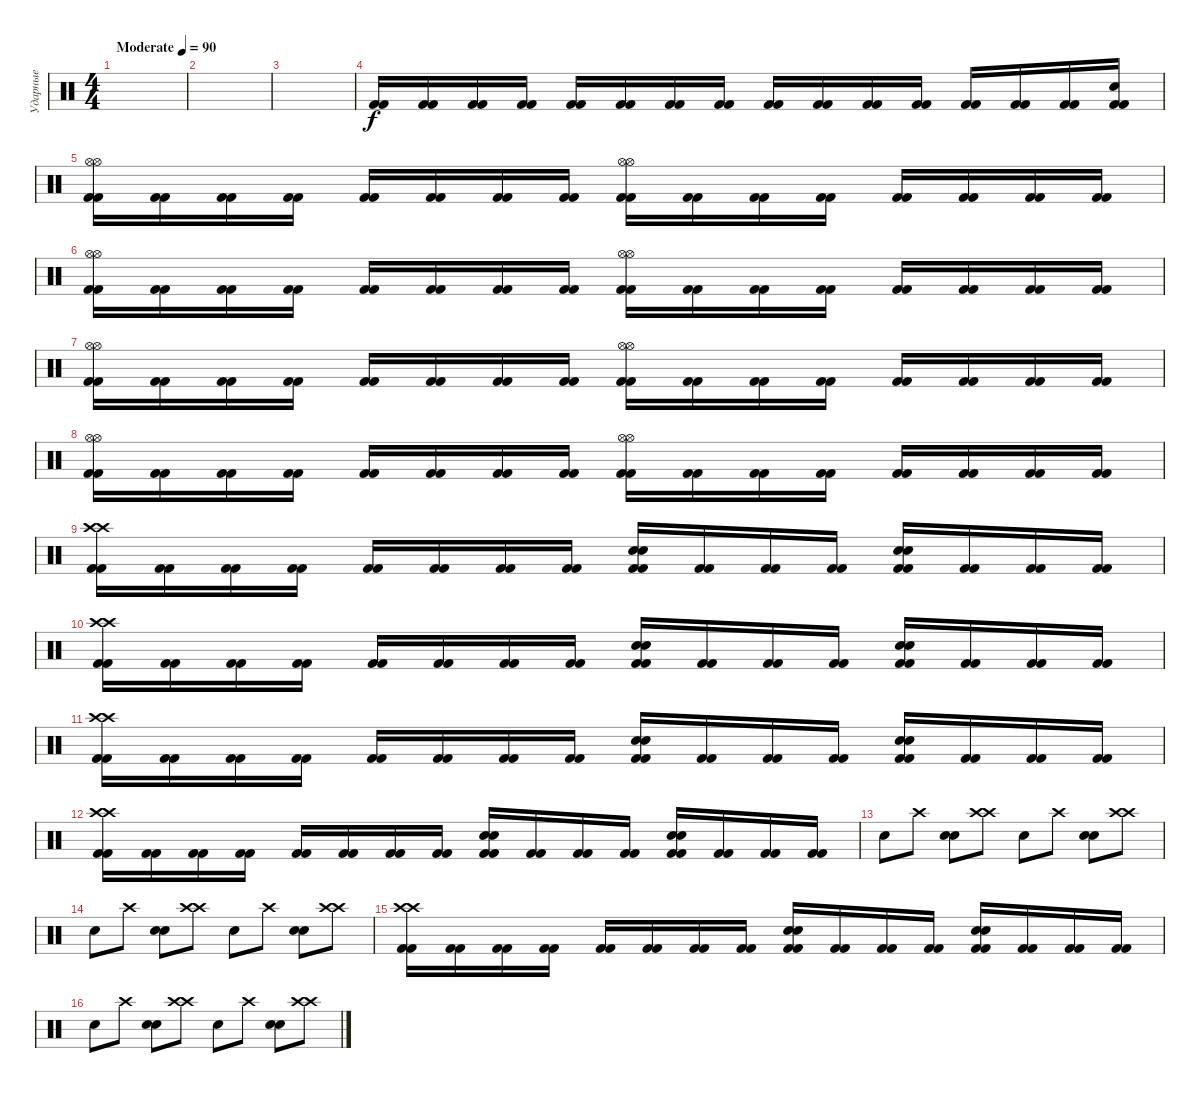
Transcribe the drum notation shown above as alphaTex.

\track ("Ударные" "Ударные") {instrument percussion}
\staff {score}
\articulation defaults
\ts (4 4)
\tempo (90 "Moderate")
\clef neutral
\ks c
|
|
|
("Kick (hit) 2" "Kick (hit) 2").16 ("Kick (hit) 2" "Kick (hit) 2").16 ("Kick (hit) 2" "Kick (hit) 2").16 ("Kick (hit) 2" "Kick (hit) 2").16 ("Kick (hit) 2" "Kick (hit) 2").16 ("Kick (hit) 2" "Kick (hit) 2").16 ("Kick (hit) 2" "Kick (hit) 2").16 ("Kick (hit) 2" "Kick (hit) 2").16 ("Kick (hit) 2" "Kick (hit) 2").16 ("Kick (hit) 2" "Kick (hit) 2").16 ("Kick (hit) 2" "Kick (hit) 2").16 ("Kick (hit) 2" "Kick (hit) 2").16 ("Kick (hit) 2" "Kick (hit) 2").16 ("Kick (hit) 2" "Kick (hit) 2").16 ("Kick (hit) 2" "Kick (hit) 2").16 ("Kick (hit) 2" "Kick (hit) 2" "Electric Snare (hit)").16 |
("Kick (hit) 2" "Kick (hit) 2" "Hi-Hat (open)" "Hi-Hat (open)").16 ("Kick (hit) 2" "Kick (hit) 2").16 ("Kick (hit) 2" "Kick (hit) 2").16 ("Kick (hit) 2" "Kick (hit) 2").16 ("Kick (hit) 2" "Kick (hit) 2").16 ("Kick (hit) 2" "Kick (hit) 2").16 ("Kick (hit) 2" "Kick (hit) 2").16 ("Kick (hit) 2" "Kick (hit) 2").16 ("Kick (hit) 2" "Kick (hit) 2" "Hi-Hat (open)" "Hi-Hat (open)").16 ("Kick (hit) 2" "Kick (hit) 2").16 ("Kick (hit) 2" "Kick (hit) 2").16 ("Kick (hit) 2" "Kick (hit) 2").16 ("Kick (hit) 2" "Kick (hit) 2").16 ("Kick (hit) 2" "Kick (hit) 2").16 ("Kick (hit) 2" "Kick (hit) 2").16 ("Kick (hit) 2" "Kick (hit) 2").16 |
("Kick (hit) 2" "Kick (hit) 2" "Hi-Hat (open)" "Hi-Hat (open)").16 ("Kick (hit) 2" "Kick (hit) 2").16 ("Kick (hit) 2" "Kick (hit) 2").16 ("Kick (hit) 2" "Kick (hit) 2").16 ("Kick (hit) 2" "Kick (hit) 2").16 ("Kick (hit) 2" "Kick (hit) 2").16 ("Kick (hit) 2" "Kick (hit) 2").16 ("Kick (hit) 2" "Kick (hit) 2").16 ("Kick (hit) 2" "Kick (hit) 2" "Hi-Hat (open)" "Hi-Hat (open)").16 ("Kick (hit) 2" "Kick (hit) 2").16 ("Kick (hit) 2" "Kick (hit) 2").16 ("Kick (hit) 2" "Kick (hit) 2").16 ("Kick (hit) 2" "Kick (hit) 2").16 ("Kick (hit) 2" "Kick (hit) 2").16 ("Kick (hit) 2" "Kick (hit) 2").16 ("Kick (hit) 2" "Kick (hit) 2").16 |
("Kick (hit) 2" "Kick (hit) 2" "Hi-Hat (open)" "Hi-Hat (open)").16 ("Kick (hit) 2" "Kick (hit) 2").16 ("Kick (hit) 2" "Kick (hit) 2").16 ("Kick (hit) 2" "Kick (hit) 2").16 ("Kick (hit) 2" "Kick (hit) 2").16 ("Kick (hit) 2" "Kick (hit) 2").16 ("Kick (hit) 2" "Kick (hit) 2").16 ("Kick (hit) 2" "Kick (hit) 2").16 ("Kick (hit) 2" "Kick (hit) 2" "Hi-Hat (open)" "Hi-Hat (open)").16 ("Kick (hit) 2" "Kick (hit) 2").16 ("Kick (hit) 2" "Kick (hit) 2").16 ("Kick (hit) 2" "Kick (hit) 2").16 ("Kick (hit) 2" "Kick (hit) 2").16 ("Kick (hit) 2" "Kick (hit) 2").16 ("Kick (hit) 2" "Kick (hit) 2").16 ("Kick (hit) 2" "Kick (hit) 2").16 |
("Kick (hit) 2" "Kick (hit) 2" "Hi-Hat (open)" "Hi-Hat (open)").16 ("Kick (hit) 2" "Kick (hit) 2").16 ("Kick (hit) 2" "Kick (hit) 2").16 ("Kick (hit) 2" "Kick (hit) 2").16 ("Kick (hit) 2" "Kick (hit) 2").16 ("Kick (hit) 2" "Kick (hit) 2").16 ("Kick (hit) 2" "Kick (hit) 2").16 ("Kick (hit) 2" "Kick (hit) 2").16 ("Kick (hit) 2" "Kick (hit) 2" "Hi-Hat (open)" "Hi-Hat (open)").16 ("Kick (hit) 2" "Kick (hit) 2").16 ("Kick (hit) 2" "Kick (hit) 2").16 ("Kick (hit) 2" "Kick (hit) 2").16 ("Kick (hit) 2" "Kick (hit) 2").16 ("Kick (hit) 2" "Kick (hit) 2").16 ("Kick (hit) 2" "Kick (hit) 2").16 ("Kick (hit) 2" "Kick (hit) 2").16 |
("Kick (hit) 2" "Kick (hit) 2" "Crash high (hit)" "Crash high (hit)").16 ("Kick (hit) 2" "Kick (hit) 2").16 ("Kick (hit) 2" "Kick (hit) 2").16 ("Kick (hit) 2" "Kick (hit) 2").16 ("Kick (hit) 2" "Kick (hit) 2").16 ("Kick (hit) 2" "Kick (hit) 2").16 ("Kick (hit) 2" "Kick (hit) 2").16 ("Kick (hit) 2" "Kick (hit) 2").16 ("Kick (hit) 2" "Kick (hit) 2" "Electric Snare (hit)" "Electric Snare (hit)").16 ("Kick (hit) 2" "Kick (hit) 2").16 ("Kick (hit) 2" "Kick (hit) 2").16 ("Kick (hit) 2" "Kick (hit) 2").16 ("Kick (hit) 2" "Kick (hit) 2" "Electric Snare (hit)" "Electric Snare (hit)").16 ("Kick (hit) 2" "Kick (hit) 2").16 ("Kick (hit) 2" "Kick (hit) 2").16 ("Kick (hit) 2" "Kick (hit) 2").16 |
("Kick (hit) 2" "Kick (hit) 2" "Crash high (hit)" "Crash high (hit)").16 ("Kick (hit) 2" "Kick (hit) 2").16 ("Kick (hit) 2" "Kick (hit) 2").16 ("Kick (hit) 2" "Kick (hit) 2").16 ("Kick (hit) 2" "Kick (hit) 2").16 ("Kick (hit) 2" "Kick (hit) 2").16 ("Kick (hit) 2" "Kick (hit) 2").16 ("Kick (hit) 2" "Kick (hit) 2").16 ("Kick (hit) 2" "Kick (hit) 2" "Electric Snare (hit)" "Electric Snare (hit)").16 ("Kick (hit) 2" "Kick (hit) 2").16 ("Kick (hit) 2" "Kick (hit) 2").16 ("Kick (hit) 2" "Kick (hit) 2").16 ("Kick (hit) 2" "Kick (hit) 2" "Electric Snare (hit)" "Electric Snare (hit)").16 ("Kick (hit) 2" "Kick (hit) 2").16 ("Kick (hit) 2" "Kick (hit) 2").16 ("Kick (hit) 2" "Kick (hit) 2").16 |
("Kick (hit) 2" "Kick (hit) 2" "Crash high (hit)" "Crash high (hit)").16 ("Kick (hit) 2" "Kick (hit) 2").16 ("Kick (hit) 2" "Kick (hit) 2").16 ("Kick (hit) 2" "Kick (hit) 2").16 ("Kick (hit) 2" "Kick (hit) 2").16 ("Kick (hit) 2" "Kick (hit) 2").16 ("Kick (hit) 2" "Kick (hit) 2").16 ("Kick (hit) 2" "Kick (hit) 2").16 ("Kick (hit) 2" "Kick (hit) 2" "Electric Snare (hit)" "Electric Snare (hit)").16 ("Kick (hit) 2" "Kick (hit) 2").16 ("Kick (hit) 2" "Kick (hit) 2").16 ("Kick (hit) 2" "Kick (hit) 2").16 ("Kick (hit) 2" "Kick (hit) 2" "Electric Snare (hit)" "Electric Snare (hit)").16 ("Kick (hit) 2" "Kick (hit) 2").16 ("Kick (hit) 2" "Kick (hit) 2").16 ("Kick (hit) 2" "Kick (hit) 2").16 |
("Kick (hit) 2" "Kick (hit) 2" "Crash high (hit)" "Crash high (hit)").16 ("Kick (hit) 2" "Kick (hit) 2").16 ("Kick (hit) 2" "Kick (hit) 2").16 ("Kick (hit) 2" "Kick (hit) 2").16 ("Kick (hit) 2" "Kick (hit) 2").16 ("Kick (hit) 2" "Kick (hit) 2").16 ("Kick (hit) 2" "Kick (hit) 2").16 ("Kick (hit) 2" "Kick (hit) 2").16 ("Kick (hit) 2" "Kick (hit) 2" "Electric Snare (hit)" "Electric Snare (hit)").16 ("Kick (hit) 2" "Kick (hit) 2").16 ("Kick (hit) 2" "Kick (hit) 2").16 ("Kick (hit) 2" "Kick (hit) 2").16 ("Kick (hit) 2" "Kick (hit) 2" "Electric Snare (hit)" "Electric Snare (hit)").16 ("Kick (hit) 2" "Kick (hit) 2").16 ("Kick (hit) 2" "Kick (hit) 2").16 ("Kick (hit) 2" "Kick (hit) 2").16 |
"Electric Snare (hit)".8 "Crash high (hit)".8 ("Electric Snare (hit)" "Electric Snare (hit)").8 ("Crash high (hit)" "Crash high (hit)").8 "Electric Snare (hit)".8 "Crash high (hit)".8 ("Electric Snare (hit)" "Electric Snare (hit)").8 ("Crash high (hit)" "Crash high (hit)").8 |
"Electric Snare (hit)".8 "Crash high (hit)".8 ("Electric Snare (hit)" "Electric Snare (hit)").8 ("Crash high (hit)" "Crash high (hit)").8 "Electric Snare (hit)".8 "Crash high (hit)".8 ("Electric Snare (hit)" "Electric Snare (hit)").8 ("Crash high (hit)" "Crash high (hit)").8 |
("Kick (hit) 2" "Kick (hit) 2" "Crash high (hit)" "Crash high (hit)").16 ("Kick (hit) 2" "Kick (hit) 2").16 ("Kick (hit) 2" "Kick (hit) 2").16 ("Kick (hit) 2" "Kick (hit) 2").16 ("Kick (hit) 2" "Kick (hit) 2").16 ("Kick (hit) 2" "Kick (hit) 2").16 ("Kick (hit) 2" "Kick (hit) 2").16 ("Kick (hit) 2" "Kick (hit) 2").16 ("Kick (hit) 2" "Kick (hit) 2" "Electric Snare (hit)" "Electric Snare (hit)").16 ("Kick (hit) 2" "Kick (hit) 2").16 ("Kick (hit) 2" "Kick (hit) 2").16 ("Kick (hit) 2" "Kick (hit) 2").16 ("Kick (hit) 2" "Kick (hit) 2" "Electric Snare (hit)" "Electric Snare (hit)").16 ("Kick (hit) 2" "Kick (hit) 2").16 ("Kick (hit) 2" "Kick (hit) 2").16 ("Kick (hit) 2" "Kick (hit) 2").16 |
"Electric Snare (hit)".8 "Crash high (hit)".8 ("Electric Snare (hit)" "Electric Snare (hit)").8 ("Crash high (hit)" "Crash high (hit)").8 "Electric Snare (hit)".8 "Crash high (hit)".8 ("Electric Snare (hit)" "Electric Snare (hit)").8 ("Crash high (hit)" "Crash high (hit)").8
